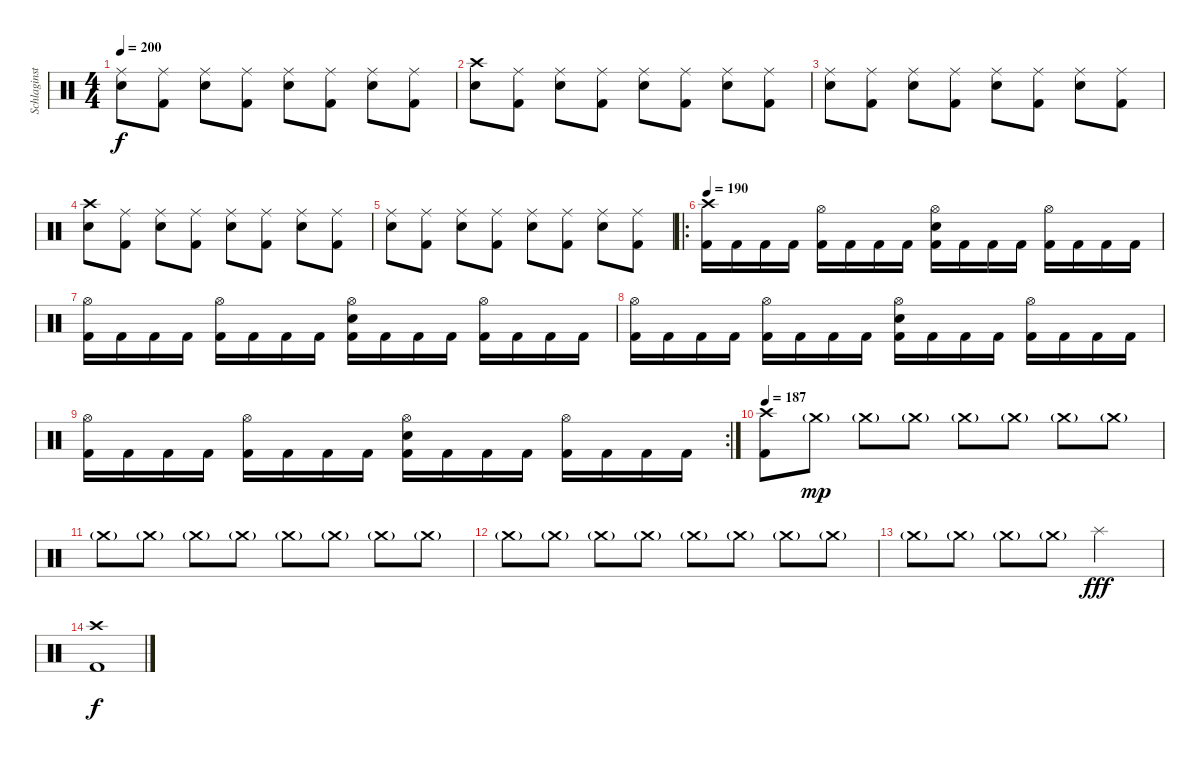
\track ("Schlaginstrumente - Auswahl" "Schlaginst") {instrument percussion}
\staff {score}
\articulation defaults
\ts (4 4)
\tempo 200
\clef neutral
\ks c
("Ride (middle)" "Electric Snare (hit)").8{dy f} ("Ride (middle)" "Kick (hit) 2").8 ("Ride (middle)" "Electric Snare (hit)").8 ("Ride (middle)" "Kick (hit) 2").8 ("Ride (middle)" "Electric Snare (hit)").8 ("Ride (middle)" "Kick (hit) 2").8 ("Ride (middle)" "Electric Snare (hit)").8 ("Ride (middle)" "Kick (hit) 2").8 |
("Crash high (hit)" "Electric Snare (hit)").8 ("Ride (middle)" "Kick (hit) 2").8 ("Ride (middle)" "Electric Snare (hit)").8 ("Ride (middle)" "Kick (hit) 2").8 ("Ride (middle)" "Electric Snare (hit)").8 ("Ride (middle)" "Kick (hit) 2").8 ("Ride (middle)" "Electric Snare (hit)").8 ("Ride (middle)" "Kick (hit) 2").8 |
("Ride (middle)" "Electric Snare (hit)").8 ("Ride (middle)" "Kick (hit) 2").8 ("Ride (middle)" "Electric Snare (hit)").8 ("Ride (middle)" "Kick (hit) 2").8 ("Ride (middle)" "Electric Snare (hit)").8 ("Ride (middle)" "Kick (hit) 2").8 ("Ride (middle)" "Electric Snare (hit)").8 ("Ride (middle)" "Kick (hit) 2").8 |
("Crash high (hit)" "Electric Snare (hit)").8 ("Ride (middle)" "Kick (hit) 2").8 ("Ride (middle)" "Electric Snare (hit)").8 ("Ride (middle)" "Kick (hit) 2").8 ("Ride (middle)" "Electric Snare (hit)").8 ("Ride (middle)" "Kick (hit) 2").8 ("Ride (middle)" "Electric Snare (hit)").8 ("Ride (middle)" "Kick (hit) 2").8 |
("Ride (middle)" "Electric Snare (hit)").8 ("Ride (middle)" "Kick (hit) 2").8 ("Ride (middle)" "Electric Snare (hit)").8 ("Ride (middle)" "Kick (hit) 2").8 ("Ride (middle)" "Electric Snare (hit)").8 ("Ride (middle)" "Kick (hit) 2").8 ("Ride (middle)" "Electric Snare (hit)").8 ("Ride (middle)" "Kick (hit) 2").8 |
\ro
\tempo 190
("Crash high (hit)" "Kick (hit) 2").16 "Kick (hit) 2".16 "Kick (hit) 2".16 "Kick (hit) 2".16 ("Hi-Hat (open)" "Kick (hit) 2").16 "Kick (hit) 2".16 "Kick (hit) 2".16 "Kick (hit) 2".16 ("Hi-Hat (open)" "Electric Snare (hit)" "Kick (hit) 2").16 "Kick (hit) 2".16 "Kick (hit) 2".16 "Kick (hit) 2".16 ("Hi-Hat (open)" "Kick (hit) 2").16 "Kick (hit) 2".16 "Kick (hit) 2".16 "Kick (hit) 2".16 |
("Hi-Hat (open)" "Kick (hit) 2").16 "Kick (hit) 2".16 "Kick (hit) 2".16 "Kick (hit) 2".16 ("Hi-Hat (open)" "Kick (hit) 2").16 "Kick (hit) 2".16 "Kick (hit) 2".16 "Kick (hit) 2".16 ("Hi-Hat (open)" "Electric Snare (hit)" "Kick (hit) 2").16 "Kick (hit) 2".16 "Kick (hit) 2".16 "Kick (hit) 2".16 ("Hi-Hat (open)" "Kick (hit) 2").16 "Kick (hit) 2".16 "Kick (hit) 2".16 "Kick (hit) 2".16 |
("Hi-Hat (open)" "Kick (hit) 2").16 "Kick (hit) 2".16 "Kick (hit) 2".16 "Kick (hit) 2".16 ("Hi-Hat (open)" "Kick (hit) 2").16 "Kick (hit) 2".16 "Kick (hit) 2".16 "Kick (hit) 2".16 ("Hi-Hat (open)" "Electric Snare (hit)" "Kick (hit) 2").16 "Kick (hit) 2".16 "Kick (hit) 2".16 "Kick (hit) 2".16 ("Hi-Hat (open)" "Kick (hit) 2").16 "Kick (hit) 2".16 "Kick (hit) 2".16 "Kick (hit) 2".16 |
\rc 2
("Hi-Hat (open)" "Kick (hit) 2").16 "Kick (hit) 2".16 "Kick (hit) 2".16 "Kick (hit) 2".16 ("Hi-Hat (open)" "Kick (hit) 2").16 "Kick (hit) 2".16 "Kick (hit) 2".16 "Kick (hit) 2".16 ("Hi-Hat (open)" "Electric Snare (hit)" "Kick (hit) 2").16 "Kick (hit) 2".16 "Kick (hit) 2".16 "Kick (hit) 2".16 ("Hi-Hat (open)" "Kick (hit) 2").16 "Kick (hit) 2".16 "Kick (hit) 2".16 "Kick (hit) 2".16 |
\tempo 187
("Crash high (hit)" "Kick (hit) 2").8 "Crash medium (hit)"{g}.8{dy mp} "Crash medium (hit)"{g}.8 "Crash medium (hit)"{g}.8 "Crash medium (hit)"{g}.8 "Crash medium (hit)"{g}.8 "Crash medium (hit)"{g}.8 "Crash medium (hit)"{g}.8 |
"Crash medium (hit)"{g}.8 "Crash medium (hit)"{g}.8 "Crash medium (hit)"{g}.8 "Crash medium (hit)"{g}.8 "Crash medium (hit)"{g}.8 "Crash medium (hit)"{g}.8 "Crash medium (hit)"{g}.8 "Crash medium (hit)"{g}.8 |
"Crash medium (hit)"{g}.8 "Crash medium (hit)"{g}.8 "Crash medium (hit)"{g}.8 "Crash medium (hit)"{g}.8 "Crash medium (hit)"{g}.8 "Crash medium (hit)"{g}.8 "Crash medium (hit)"{g}.8 "Crash medium (hit)"{g}.8 |
"Crash medium (hit)"{g}.8 "Crash medium (hit)"{g}.8 "Crash medium (hit)"{g}.8 "Crash medium (hit)"{g}.8 "Splash (hit)".2{dy fff} |
("Crash high (hit)" "Kick (hit) 2").1{dy f}
